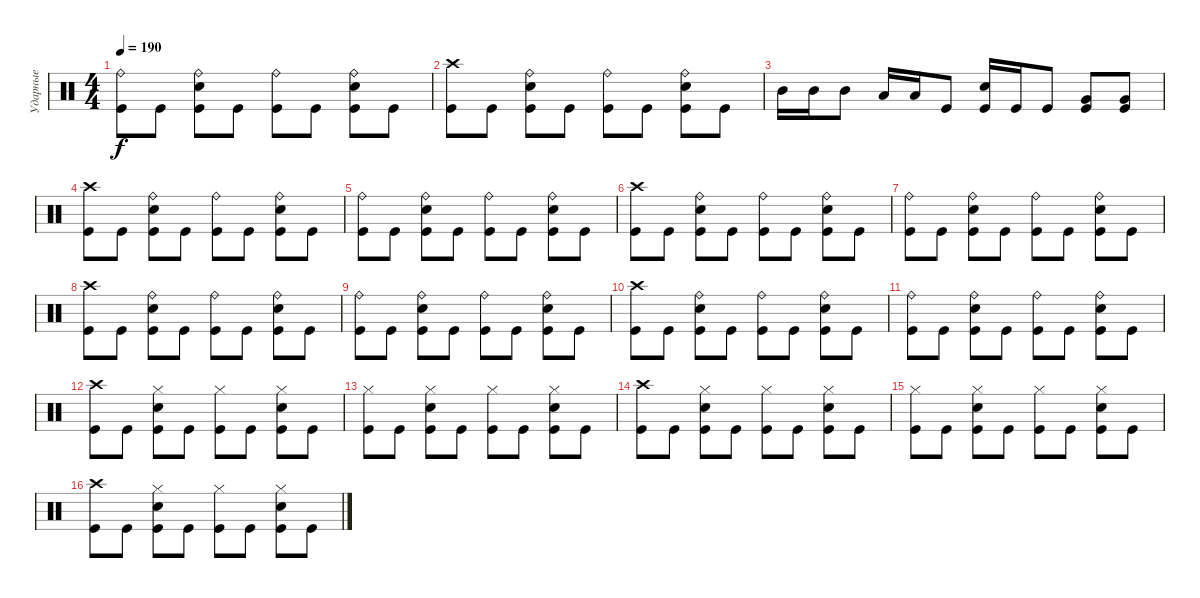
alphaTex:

\track ("Ударные" "Ударные") {instrument percussion}
\staff {score}
\articulation defaults
\ts (4 4)
\tempo 190
\clef neutral
\ks c
("Ride (bell)" "Kick (hit)").8{dy f} "Kick (hit)".8 ("Ride (bell)" "Electric Snare (hit)" "Kick (hit)").8 "Kick (hit)".8 ("Ride (bell)" "Kick (hit)").8 "Kick (hit)".8 ("Ride (bell)" "Electric Snare (hit)" "Kick (hit)").8 "Kick (hit)".8 |
("Crash high (hit)" "Kick (hit)").8 "Kick (hit)".8 ("Ride (bell)" "Electric Snare (hit)" "Kick (hit)").8 "Kick (hit)".8 ("Ride (bell)" "Kick (hit)").8 "Kick (hit)".8 ("Ride (bell)" "Electric Snare (hit)" "Kick (hit)").8 "Kick (hit)".8 |
"Mid Tom (hit)".16 "Mid Tom (hit)".16 "Mid Tom (hit)".8 "Low Tom (hit)".16 "Low Tom (hit)".16 "Kick (hit)".8 ("Electric Snare (hit)" "Kick (hit)").16 "Kick (hit)".16 "Kick (hit)".8 ("Very Low Tom (hit)" "Kick (hit)").8 ("Very Low Tom (hit)" "Kick (hit)").8 |
("Crash high (hit)" "Kick (hit)").8 "Kick (hit)".8 ("Ride (bell)" "Electric Snare (hit)" "Kick (hit)").8 "Kick (hit)".8 ("Ride (bell)" "Kick (hit)").8 "Kick (hit)".8 ("Ride (bell)" "Electric Snare (hit)" "Kick (hit)").8 "Kick (hit)".8 |
("Ride (bell)" "Kick (hit)").8 "Kick (hit)".8 ("Ride (bell)" "Electric Snare (hit)" "Kick (hit)").8 "Kick (hit)".8 ("Ride (bell)" "Kick (hit)").8 "Kick (hit)".8 ("Ride (bell)" "Electric Snare (hit)" "Kick (hit)").8 "Kick (hit)".8 |
("Crash high (hit)" "Kick (hit)").8 "Kick (hit)".8 ("Ride (bell)" "Electric Snare (hit)" "Kick (hit)").8 "Kick (hit)".8 ("Ride (bell)" "Kick (hit)").8 "Kick (hit)".8 ("Ride (bell)" "Electric Snare (hit)" "Kick (hit)").8 "Kick (hit)".8 |
("Ride (bell)" "Kick (hit)").8 "Kick (hit)".8 ("Ride (bell)" "Electric Snare (hit)" "Kick (hit)").8 "Kick (hit)".8 ("Ride (bell)" "Kick (hit)").8 "Kick (hit)".8 ("Ride (bell)" "Electric Snare (hit)" "Kick (hit)").8 "Kick (hit)".8 |
("Crash high (hit)" "Kick (hit)").8 "Kick (hit)".8 ("Ride (bell)" "Electric Snare (hit)" "Kick (hit)").8 "Kick (hit)".8 ("Ride (bell)" "Kick (hit)").8 "Kick (hit)".8 ("Ride (bell)" "Electric Snare (hit)" "Kick (hit)").8 "Kick (hit)".8 |
("Ride (bell)" "Kick (hit)").8 "Kick (hit)".8 ("Ride (bell)" "Electric Snare (hit)" "Kick (hit)").8 "Kick (hit)".8 ("Ride (bell)" "Kick (hit)").8 "Kick (hit)".8 ("Ride (bell)" "Electric Snare (hit)" "Kick (hit)").8 "Kick (hit)".8 |
("Crash high (hit)" "Kick (hit)").8 "Kick (hit)".8 ("Ride (bell)" "Electric Snare (hit)" "Kick (hit)").8 "Kick (hit)".8 ("Ride (bell)" "Kick (hit)").8 "Kick (hit)".8 ("Ride (bell)" "Electric Snare (hit)" "Kick (hit)").8 "Kick (hit)".8 |
("Ride (bell)" "Kick (hit)").8 "Kick (hit)".8 ("Ride (bell)" "Electric Snare (hit)" "Kick (hit)").8 "Kick (hit)".8 ("Ride (bell)" "Kick (hit)").8 "Kick (hit)".8 ("Ride (bell)" "Electric Snare (hit)" "Kick (hit)").8 "Kick (hit)".8 |
("Crash high (hit)" "Kick (hit)").8 "Kick (hit)".8 ("Hi-Hat (closed)" "Electric Snare (hit)" "Kick (hit)").8 "Kick (hit)".8 ("Hi-Hat (closed)" "Kick (hit)").8 "Kick (hit)".8 ("Hi-Hat (closed)" "Electric Snare (hit)" "Kick (hit)").8 "Kick (hit)".8 |
("Hi-Hat (closed)" "Kick (hit)").8 "Kick (hit)".8 ("Hi-Hat (closed)" "Electric Snare (hit)" "Kick (hit)").8 "Kick (hit)".8 ("Hi-Hat (closed)" "Kick (hit)").8 "Kick (hit)".8 ("Hi-Hat (closed)" "Electric Snare (hit)" "Kick (hit)").8 "Kick (hit)".8 |
("Crash high (hit)" "Kick (hit)").8 "Kick (hit)".8 ("Hi-Hat (closed)" "Electric Snare (hit)" "Kick (hit)").8 "Kick (hit)".8 ("Hi-Hat (closed)" "Kick (hit)").8 "Kick (hit)".8 ("Hi-Hat (closed)" "Electric Snare (hit)" "Kick (hit)").8 "Kick (hit)".8 |
("Hi-Hat (closed)" "Kick (hit)").8 "Kick (hit)".8 ("Hi-Hat (closed)" "Electric Snare (hit)" "Kick (hit)").8 "Kick (hit)".8 ("Hi-Hat (closed)" "Kick (hit)").8 "Kick (hit)".8 ("Hi-Hat (closed)" "Electric Snare (hit)" "Kick (hit)").8 "Kick (hit)".8 |
("Crash high (hit)" "Kick (hit)").8 "Kick (hit)".8 ("Hi-Hat (closed)" "Electric Snare (hit)" "Kick (hit)").8 "Kick (hit)".8 ("Hi-Hat (closed)" "Kick (hit)").8 "Kick (hit)".8 ("Hi-Hat (closed)" "Electric Snare (hit)" "Kick (hit)").8 "Kick (hit)".8
